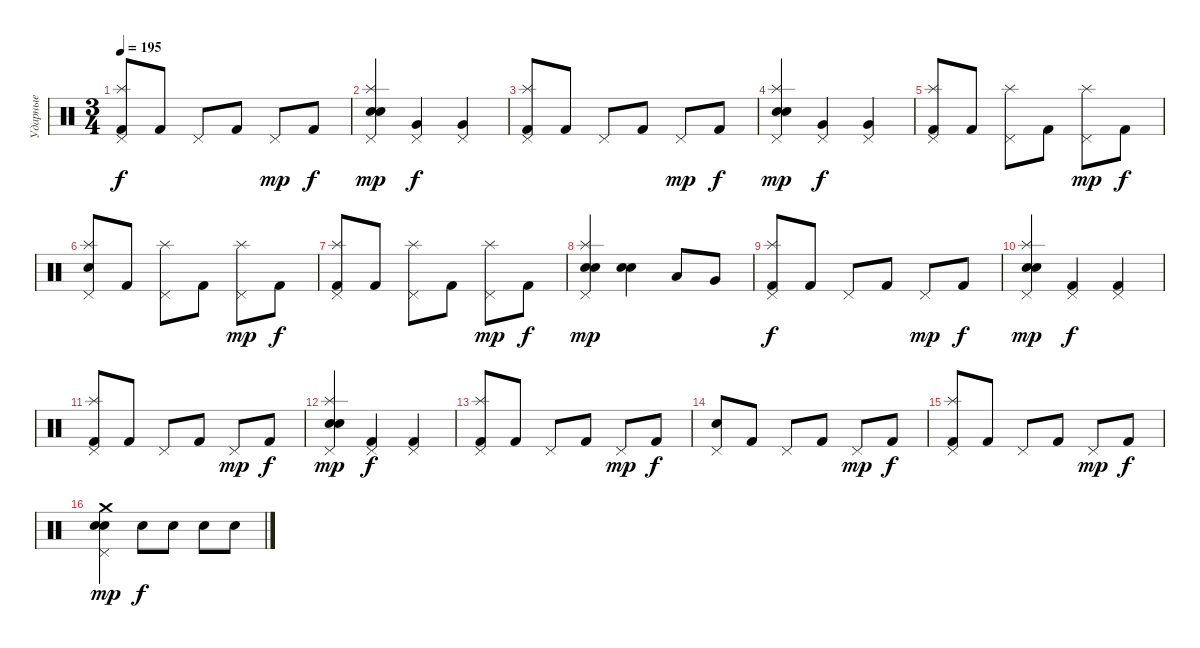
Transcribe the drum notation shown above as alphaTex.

\track ("Ударные" "Ударные") {instrument percussion}
\staff {score}
\articulation defaults
\ts (3 4)
\tempo 195
\clef neutral
\ks c
("Pedal Hi-Hat (hit)" "Splash (hit)" "Kick (hit) 2").8{dy f} "Kick (hit) 2".8 "Pedal Hi-Hat (hit)".8 "Kick (hit) 2".8 "Pedal Hi-Hat (hit)".8{dy mp} "Kick (hit) 2".8{dy f} |
("Pedal Hi-Hat (hit)" "Splash (hit)" "Electric Snare (hit)" "Snare (hit) 2").4{dy mp} ("Pedal Hi-Hat (hit)" "Very Low Tom (hit)").4{dy f} ("Pedal Hi-Hat (hit)" "Very Low Tom (hit)").4 |
("Pedal Hi-Hat (hit)" "Splash (hit)" "Kick (hit) 2").8 "Kick (hit) 2".8 "Pedal Hi-Hat (hit)".8 "Kick (hit) 2".8 "Pedal Hi-Hat (hit)".8{dy mp} "Kick (hit) 2".8{dy f} |
("Pedal Hi-Hat (hit)" "Splash (hit)" "Electric Snare (hit)" "Snare (hit) 2").4{dy mp} ("Pedal Hi-Hat (hit)" "Very Low Tom (hit)").4{dy f} ("Pedal Hi-Hat (hit)" "Very Low Tom (hit)").4 |
("Pedal Hi-Hat (hit)" "Splash (hit)" "Kick (hit) 2").8 "Kick (hit) 2".8 ("Pedal Hi-Hat (hit)" "Splash (hit)").8 "Kick (hit) 2".8 ("Pedal Hi-Hat (hit)" "Splash (hit)").8{dy mp} "Kick (hit) 2".8{dy f} |
("Pedal Hi-Hat (hit)" "Splash (hit)" "Electric Snare (hit)").8 "Kick (hit) 2".8 ("Pedal Hi-Hat (hit)" "Splash (hit)").8 "Kick (hit) 2".8 ("Pedal Hi-Hat (hit)" "Splash (hit)").8{dy mp} "Kick (hit) 2".8{dy f} |
("Pedal Hi-Hat (hit)" "Splash (hit)" "Kick (hit) 2").8 "Kick (hit) 2".8 ("Pedal Hi-Hat (hit)" "Splash (hit)").8 "Kick (hit) 2".8 ("Pedal Hi-Hat (hit)" "Splash (hit)").8{dy mp} "Kick (hit) 2".8{dy f} |
("Pedal Hi-Hat (hit)" "Splash (hit)" "Electric Snare (hit)" "Snare (hit) 2").4{dy mp} ("Electric Snare (hit)" "Snare (hit) 2").4 "Low Tom (hit)".8 "Very Low Tom (hit)".8 |
("Pedal Hi-Hat (hit)" "Splash (hit)" "Kick (hit) 2").8{dy f} "Kick (hit) 2".8 "Pedal Hi-Hat (hit)".8 "Kick (hit) 2".8 "Pedal Hi-Hat (hit)".8{dy mp} "Kick (hit) 2".8{dy f} |
("Pedal Hi-Hat (hit)" "Splash (hit)" "Electric Snare (hit)" "Snare (hit) 2").4{dy mp} ("Pedal Hi-Hat (hit)" "Kick (hit) 2").4{dy f} ("Pedal Hi-Hat (hit)" "Kick (hit) 2").4 |
("Pedal Hi-Hat (hit)" "Splash (hit)" "Kick (hit) 2").8 "Kick (hit) 2".8 "Pedal Hi-Hat (hit)".8 "Kick (hit) 2".8 "Pedal Hi-Hat (hit)".8{dy mp} "Kick (hit) 2".8{dy f} |
("Pedal Hi-Hat (hit)" "Splash (hit)" "Electric Snare (hit)" "Snare (hit) 2").4{dy mp} ("Pedal Hi-Hat (hit)" "Kick (hit) 2").4{dy f} ("Pedal Hi-Hat (hit)" "Kick (hit) 2").4 |
("Pedal Hi-Hat (hit)" "Splash (hit)" "Kick (hit) 2").8 "Kick (hit) 2".8 "Pedal Hi-Hat (hit)".8 "Kick (hit) 2".8 "Pedal Hi-Hat (hit)".8{dy mp} "Kick (hit) 2".8{dy f} |
("Pedal Hi-Hat (hit)" "Electric Snare (hit)").8 "Kick (hit) 2".8 "Pedal Hi-Hat (hit)".8 "Kick (hit) 2".8 "Pedal Hi-Hat (hit)".8{dy mp} "Kick (hit) 2".8{dy f} |
("Pedal Hi-Hat (hit)" "Splash (hit)" "Kick (hit) 2").8 "Kick (hit) 2".8 "Pedal Hi-Hat (hit)".8 "Kick (hit) 2".8 "Pedal Hi-Hat (hit)".8{dy mp} "Kick (hit) 2".8{dy f} |
("Pedal Hi-Hat (hit)" "Crash medium (hit)" "Electric Snare (hit)" "Snare (hit) 2").4{dy mp} "Electric Snare (hit)".8{dy f} "Electric Snare (hit)".8 "Electric Snare (hit)".8 "Electric Snare (hit)".8
